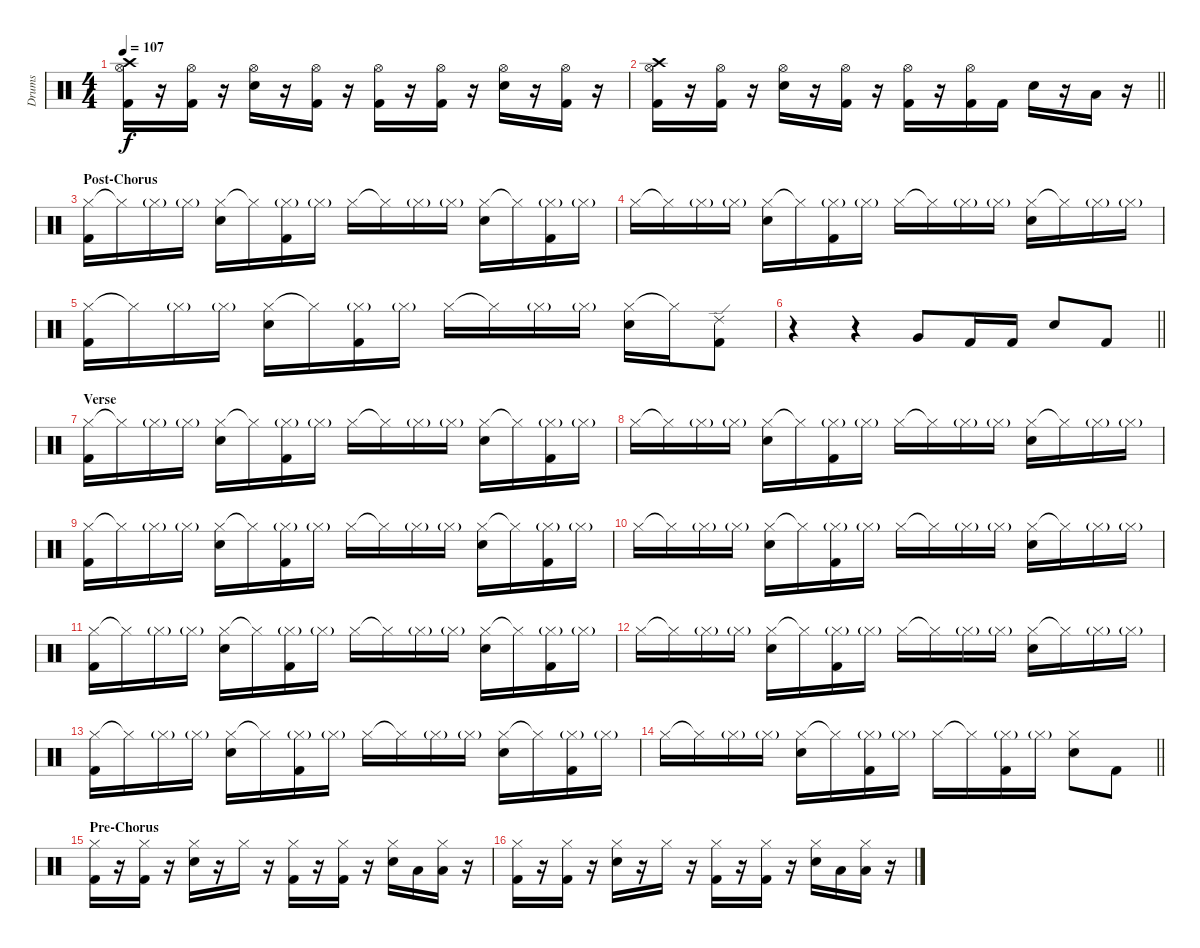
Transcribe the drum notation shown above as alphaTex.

\track ("Drums" "Drums") {instrument percussion}
\staff {score}
\articulation defaults
\ts (4 4)
\tempo 107
\clef neutral
\ks c
("Crash high (hit)" "Hi-Hat (open)" "Kick (hit) 2").16{dy f} r.16 ("Hi-Hat (open)" "Kick (hit) 2").16 r.16 ("Hi-Hat (open)" "Electric Snare (hit)").16 r.16 ("Hi-Hat (open)" "Kick (hit) 2").16 r.16 ("Hi-Hat (open)" "Kick (hit) 2").16 r.16 ("Hi-Hat (open)" "Kick (hit) 2").16 r.16 ("Hi-Hat (open)" "Electric Snare (hit)").16 r.16 ("Hi-Hat (open)" "Kick (hit) 2").16 r.16 |
\barLineRight lightlight
("Crash high (hit)" "Hi-Hat (open)" "Kick (hit) 2").16 r.16 ("Hi-Hat (open)" "Kick (hit) 2").16 r.16 ("Hi-Hat (open)" "Electric Snare (hit)").16 r.16 ("Hi-Hat (open)" "Kick (hit) 2").16 r.16 ("Hi-Hat (open)" "Kick (hit) 2").16 r.16 ("Hi-Hat (open)" "Kick (hit) 2").16 "Kick (hit) 2".16 "Electric Snare (hit)".16 r.16 "Low Floor Tom (hit)".16 r.16 |
\section ("" "Post-Chorus")
("Hi-Hat (closed)" "Kick (hit) 2").16 "Hi-Hat (closed)"{t}.16 "Hi-Hat (closed)"{g}.16 "Hi-Hat (closed)"{g}.16 ("Hi-Hat (closed)" "Electric Snare (hit)").16 "Hi-Hat (closed)"{t}.16 ("Hi-Hat (closed)"{g} "Kick (hit) 2").16 "Hi-Hat (closed)"{g}.16 "Hi-Hat (closed)".16 "Hi-Hat (closed)"{t}.16 "Hi-Hat (closed)"{g}.16 "Hi-Hat (closed)"{g}.16 ("Hi-Hat (closed)" "Electric Snare (hit)").16 "Hi-Hat (closed)"{t}.16 ("Hi-Hat (closed)"{g} "Kick (hit) 2").16 "Hi-Hat (closed)"{g}.16 |
"Hi-Hat (closed)".16 "Hi-Hat (closed)"{t}.16 "Hi-Hat (closed)"{g}.16 "Hi-Hat (closed)"{g}.16 ("Hi-Hat (closed)" "Electric Snare (hit)").16 "Hi-Hat (closed)"{t}.16 ("Hi-Hat (closed)"{g} "Kick (hit) 2").16 "Hi-Hat (closed)"{g}.16 "Hi-Hat (closed)".16 "Hi-Hat (closed)"{t}.16 "Hi-Hat (closed)"{g}.16 "Hi-Hat (closed)"{g}.16 ("Hi-Hat (closed)" "Electric Snare (hit)").16 "Hi-Hat (closed)"{t}.16 "Hi-Hat (closed)"{g}.16 "Hi-Hat (closed)"{g}.16 |
("Hi-Hat (closed)" "Kick (hit) 2").16 "Hi-Hat (closed)"{t}.16 "Hi-Hat (closed)"{g}.16 "Hi-Hat (closed)"{g}.16 ("Hi-Hat (closed)" "Electric Snare (hit)").16 "Hi-Hat (closed)"{t}.16 ("Hi-Hat (closed)"{g} "Kick (hit) 2").16 "Hi-Hat (closed)"{g}.16 "Hi-Hat (closed)".16 "Hi-Hat (closed)"{t}.16 "Hi-Hat (closed)"{g}.16 "Hi-Hat (closed)"{g}.16 ("Hi-Hat (closed)" "Electric Snare (hit)").16 "Hi-Hat (closed)"{t}.16 ("Ride (edge) 2" "Kick (hit) 2").8 |
\barLineRight lightlight
r.4 r.4 "Very Low Tom (hit)".8 "Kick (hit) 2".16 "Kick (hit) 2".16 "Electric Snare (hit)".8 "Kick (hit) 2".8 |
\section ("" "Verse")
("Hi-Hat (closed)" "Kick (hit) 2").16 "Hi-Hat (closed)"{t}.16 "Hi-Hat (closed)"{g}.16 "Hi-Hat (closed)"{g}.16 ("Hi-Hat (closed)" "Electric Snare (hit)").16 "Hi-Hat (closed)"{t}.16 ("Hi-Hat (closed)"{g} "Kick (hit) 2").16 "Hi-Hat (closed)"{g}.16 "Hi-Hat (closed)".16 "Hi-Hat (closed)"{t}.16 "Hi-Hat (closed)"{g}.16 "Hi-Hat (closed)"{g}.16 ("Hi-Hat (closed)" "Electric Snare (hit)").16 "Hi-Hat (closed)"{t}.16 ("Hi-Hat (closed)"{g} "Kick (hit) 2").16 "Hi-Hat (closed)"{g}.16 |
"Hi-Hat (closed)".16 "Hi-Hat (closed)"{t}.16 "Hi-Hat (closed)"{g}.16 "Hi-Hat (closed)"{g}.16 ("Hi-Hat (closed)" "Electric Snare (hit)").16 "Hi-Hat (closed)"{t}.16 ("Hi-Hat (closed)"{g} "Kick (hit) 2").16 "Hi-Hat (closed)"{g}.16 "Hi-Hat (closed)".16 "Hi-Hat (closed)"{t}.16 "Hi-Hat (closed)"{g}.16 "Hi-Hat (closed)"{g}.16 ("Hi-Hat (closed)" "Electric Snare (hit)").16 "Hi-Hat (closed)"{t}.16 "Hi-Hat (closed)"{g}.16 "Hi-Hat (closed)"{g}.16 |
("Hi-Hat (closed)" "Kick (hit) 2").16 "Hi-Hat (closed)"{t}.16 "Hi-Hat (closed)"{g}.16 "Hi-Hat (closed)"{g}.16 ("Hi-Hat (closed)" "Electric Snare (hit)").16 "Hi-Hat (closed)"{t}.16 ("Hi-Hat (closed)"{g} "Kick (hit) 2").16 "Hi-Hat (closed)"{g}.16 "Hi-Hat (closed)".16 "Hi-Hat (closed)"{t}.16 "Hi-Hat (closed)"{g}.16 "Hi-Hat (closed)"{g}.16 ("Hi-Hat (closed)" "Electric Snare (hit)").16 "Hi-Hat (closed)"{t}.16 ("Hi-Hat (closed)"{g} "Kick (hit) 2").16 "Hi-Hat (closed)"{g}.16 |
"Hi-Hat (closed)".16 "Hi-Hat (closed)"{t}.16 "Hi-Hat (closed)"{g}.16 "Hi-Hat (closed)"{g}.16 ("Hi-Hat (closed)" "Electric Snare (hit)").16 "Hi-Hat (closed)"{t}.16 ("Hi-Hat (closed)"{g} "Kick (hit) 2").16 "Hi-Hat (closed)"{g}.16 "Hi-Hat (closed)".16 "Hi-Hat (closed)"{t}.16 "Hi-Hat (closed)"{g}.16 "Hi-Hat (closed)"{g}.16 ("Hi-Hat (closed)" "Electric Snare (hit)").16 "Hi-Hat (closed)"{t}.16 "Hi-Hat (closed)"{g}.16 "Hi-Hat (closed)"{g}.16 |
("Hi-Hat (closed)" "Kick (hit) 2").16 "Hi-Hat (closed)"{t}.16 "Hi-Hat (closed)"{g}.16 "Hi-Hat (closed)"{g}.16 ("Hi-Hat (closed)" "Electric Snare (hit)").16 "Hi-Hat (closed)"{t}.16 ("Hi-Hat (closed)"{g} "Kick (hit) 2").16 "Hi-Hat (closed)"{g}.16 "Hi-Hat (closed)".16 "Hi-Hat (closed)"{t}.16 "Hi-Hat (closed)"{g}.16 "Hi-Hat (closed)"{g}.16 ("Hi-Hat (closed)" "Electric Snare (hit)").16 "Hi-Hat (closed)"{t}.16 ("Hi-Hat (closed)"{g} "Kick (hit) 2").16 "Hi-Hat (closed)"{g}.16 |
"Hi-Hat (closed)".16 "Hi-Hat (closed)"{t}.16 "Hi-Hat (closed)"{g}.16 "Hi-Hat (closed)"{g}.16 ("Hi-Hat (closed)" "Electric Snare (hit)").16 "Hi-Hat (closed)"{t}.16 ("Hi-Hat (closed)"{g} "Kick (hit) 2").16 "Hi-Hat (closed)"{g}.16 "Hi-Hat (closed)".16 "Hi-Hat (closed)"{t}.16 "Hi-Hat (closed)"{g}.16 "Hi-Hat (closed)"{g}.16 ("Hi-Hat (closed)" "Electric Snare (hit)").16 "Hi-Hat (closed)"{t}.16 "Hi-Hat (closed)"{g}.16 "Hi-Hat (closed)"{g}.16 |
("Hi-Hat (closed)" "Kick (hit) 2").16 "Hi-Hat (closed)"{t}.16 "Hi-Hat (closed)"{g}.16 "Hi-Hat (closed)"{g}.16 ("Hi-Hat (closed)" "Electric Snare (hit)").16 "Hi-Hat (closed)"{t}.16 ("Hi-Hat (closed)"{g} "Kick (hit) 2").16 "Hi-Hat (closed)"{g}.16 "Hi-Hat (closed)".16 "Hi-Hat (closed)"{t}.16 "Hi-Hat (closed)"{g}.16 "Hi-Hat (closed)"{g}.16 ("Hi-Hat (closed)" "Electric Snare (hit)").16 "Hi-Hat (closed)"{t}.16 ("Hi-Hat (closed)"{g} "Kick (hit) 2").16 "Hi-Hat (closed)"{g}.16 |
\barLineRight lightlight "Hi-Hat (closed)".16 "Hi-Hat (closed)"{t}.16 "Hi-Hat (closed)"{g}.16 "Hi-Hat (closed)"{g}.16
("Hi-Hat (closed)" "Electric Snare (hit)").16 "Hi-Hat (closed)"{t}.16 ("Hi-Hat (closed)"{g} "Kick (hit) 2").16 "Hi-Hat (closed)"{g}.16 "Hi-Hat (closed)".16 "Hi-Hat (closed)"{t}.16 ("Hi-Hat (closed)"{g} "Kick (hit) 2").16 "Hi-Hat (closed)"{g}.16 ("Hi-Hat (closed)" "Electric Snare (hit)").8 "Kick (hit) 2".8 |
\section ("" "Pre-Chorus")
("Hi-Hat (closed)" "Kick (hit) 2").16 r.16 ("Hi-Hat (closed)" "Kick (hit) 2").16 r.16 ("Hi-Hat (closed)" "Electric Snare (hit)").16 r.16 "Hi-Hat (closed)".16 r.16 ("Hi-Hat (closed)" "Kick (hit) 2").16 r.16 ("Hi-Hat (closed)" "Kick (hit) 2").16 r.16 ("Hi-Hat (closed)" "Electric Snare (hit)").16 "Low Tom (hit)".16 ("Hi-Hat (closed)" "Low Floor Tom (hit)").16 r.16 |
("Hi-Hat (closed)" "Kick (hit) 2").16 r.16 ("Hi-Hat (closed)" "Kick (hit) 2").16 r.16 ("Hi-Hat (closed)" "Electric Snare (hit)").16 r.16 "Hi-Hat (closed)".16 r.16 ("Hi-Hat (closed)" "Kick (hit) 2").16 r.16 ("Hi-Hat (closed)" "Kick (hit) 2").16 r.16 ("Hi-Hat (closed)" "Electric Snare (hit)").16 "Low Tom (hit)".16 ("Hi-Hat (closed)" "Low Floor Tom (hit)").16 r.16
